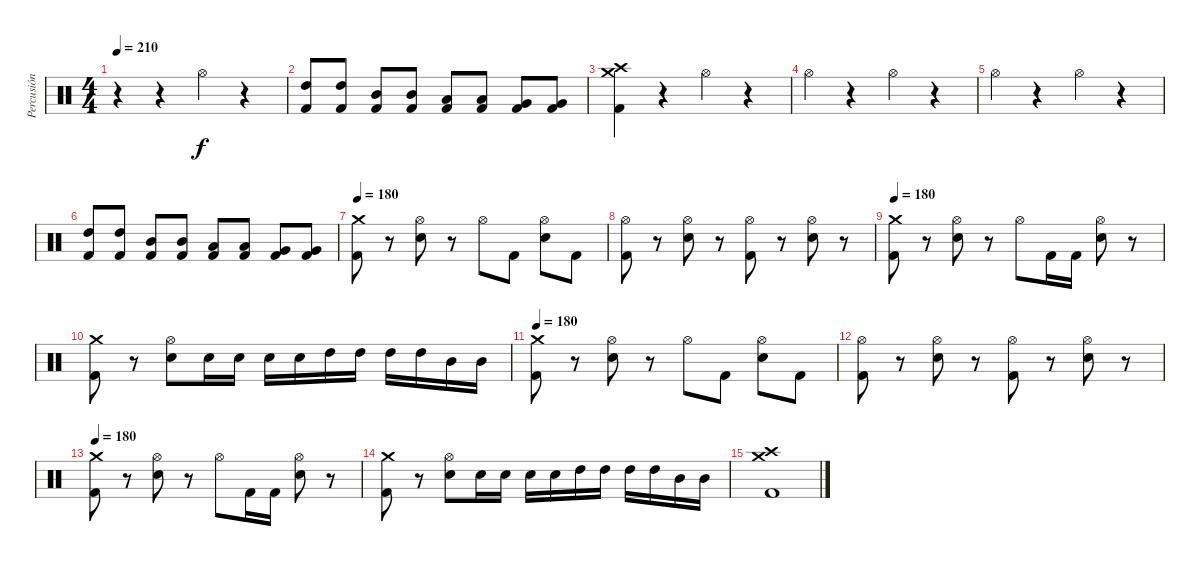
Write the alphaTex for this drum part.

\track ("Percusión" "Percusión") {instrument percussion}
\staff {score}
\articulation defaults
\ts (4 4)
\tempo 210
\clef neutral
\ks c
r.4{dy f} r.4 "Hi-Hat (open)".4 r.4 |
("High Tom (hit)" "Kick (hit) 2").8 ("High Tom (hit)" "Kick (hit) 2").8 ("Mid Tom (hit)" "Kick (hit) 2").8 ("Mid Tom (hit)" "Kick (hit) 2").8 ("Low Tom (hit)" "Kick (hit) 2").8 ("Low Tom (hit)" "Kick (hit) 2").8 ("Very Low Tom (hit)" "Kick (hit) 2").8 ("Very Low Tom (hit)" "Kick (hit) 2").8 |
("Crash medium (hit)" "Crash high (hit)" "Kick (hit) 2").4 r.4 "Hi-Hat (open)".4 r.4 |
"Hi-Hat (open)".4 r.4 "Hi-Hat (open)".4 r.4 |
"Hi-Hat (open)".4 r.4 "Hi-Hat (open)".4 r.4 |
("High Tom (hit)" "Kick (hit) 2").8 ("High Tom (hit)" "Kick (hit) 2").8 ("Mid Tom (hit)" "Kick (hit) 2").8 ("Mid Tom (hit)" "Kick (hit) 2").8 ("Low Tom (hit)" "Kick (hit) 2").8 ("Low Tom (hit)" "Kick (hit) 2").8 ("Very Low Tom (hit)" "Kick (hit) 2").8 ("Very Low Tom (hit)" "Kick (hit) 2").8 |
\tempo 180
("Crash medium (hit)" "Kick (hit) 2").8 r.8 ("Hi-Hat (open)" "Electric Snare (hit)").8 r.8 "Hi-Hat (open)".8 "Kick (hit) 2".8 ("Hi-Hat (open)" "Electric Snare (hit)").8 "Kick (hit) 2".8 |
("Hi-Hat (open)" "Kick (hit) 2").8 r.8 ("Hi-Hat (open)" "Electric Snare (hit)").8 r.8 ("Hi-Hat (open)" "Kick (hit) 2").8 r.8 ("Hi-Hat (open)" "Electric Snare (hit)").8 r.8 |
\tempo 180
("Crash medium (hit)" "Kick (hit) 2").8 r.8 ("Hi-Hat (open)" "Electric Snare (hit)").8 r.8 "Hi-Hat (open)".8 "Kick (hit) 2".16 "Kick (hit) 2".16 ("Hi-Hat (open)" "Electric Snare (hit)").8 r.8 |
("Crash medium (hit)" "Kick (hit) 2").8 r.8 ("Hi-Hat (open)" "Electric Snare (hit)").8 "Electric Snare (hit)".16 "Electric Snare (hit)".16 "Electric Snare (hit)".16 "Electric Snare (hit)".16 "High Tom (hit)".16 "High Tom (hit)".16 "High Tom (hit)".16 "High Tom (hit)".16 "Mid Tom (hit)".16 "Mid Tom (hit)".16 |
\tempo 180
("Crash medium (hit)" "Kick (hit) 2").8 r.8 ("Hi-Hat (open)" "Electric Snare (hit)").8 r.8 "Hi-Hat (open)".8 "Kick (hit) 2".8 ("Hi-Hat (open)" "Electric Snare (hit)").8 "Kick (hit) 2".8 |
("Hi-Hat (open)" "Kick (hit) 2").8 r.8 ("Hi-Hat (open)" "Electric Snare (hit)").8 r.8 ("Hi-Hat (open)" "Kick (hit) 2").8 r.8 ("Hi-Hat (open)" "Electric Snare (hit)").8 r.8 |
\tempo 180
("Crash medium (hit)" "Kick (hit) 2").8 r.8 ("Hi-Hat (open)" "Electric Snare (hit)").8 r.8 "Hi-Hat (open)".8 "Kick (hit) 2".16 "Kick (hit) 2".16 ("Hi-Hat (open)" "Electric Snare (hit)").8 r.8 |
("Crash medium (hit)" "Kick (hit) 2").8 r.8 ("Hi-Hat (open)" "Electric Snare (hit)").8 "Electric Snare (hit)".16 "Electric Snare (hit)".16 "Electric Snare (hit)".16 "Electric Snare (hit)".16 "High Tom (hit)".16 "High Tom (hit)".16 "High Tom (hit)".16 "High Tom (hit)".16 "Mid Tom (hit)".16 "Mid Tom (hit)".16 |
("Crash medium (hit)" "Kick (hit) 2" "Crash high (hit)").1
